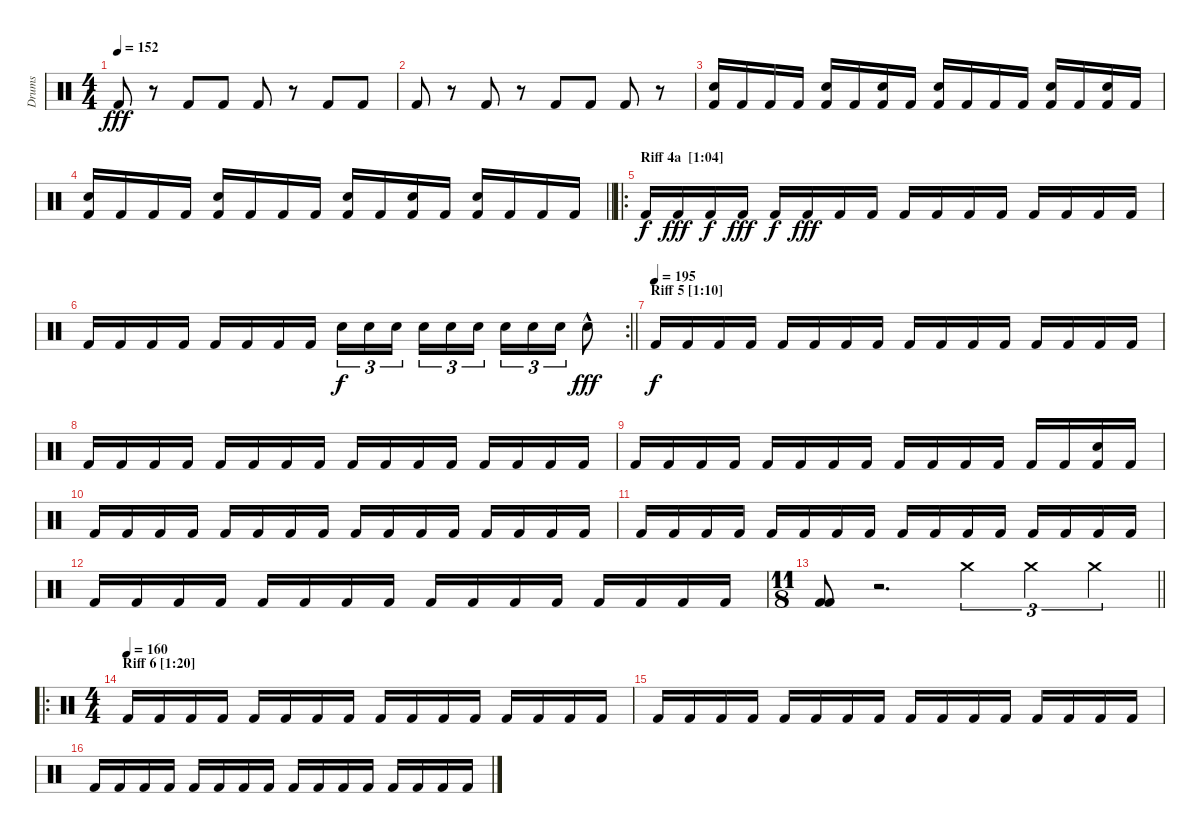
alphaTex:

\track ("Drums" "Drums") {instrument percussion}
\staff {score}
\articulation defaults
\ts (4 4)
\tempo 152
\clef neutral
\ks c "Kick (hit) 2".8{dy fff}
r.8 "Kick (hit) 2".8 "Kick (hit) 2".8 "Kick (hit) 2".8 r.8 "Kick (hit) 2".8 "Kick (hit) 2".8 |
"Kick (hit) 2".8 r.8 "Kick (hit) 2".8 r.8 "Kick (hit) 2".8 "Kick (hit) 2".8 "Kick (hit) 2".8 r.8 |
("Electric Snare (hit)" "Kick (hit) 2").16 "Kick (hit) 2".16 "Kick (hit) 2".16 "Kick (hit) 2".16 ("Electric Snare (hit)" "Kick (hit) 2").16 "Kick (hit) 2".16 ("Electric Snare (hit)" "Kick (hit) 2").16 "Kick (hit) 2".16 ("Electric Snare (hit)" "Kick (hit) 2").16 "Kick (hit) 2".16 "Kick (hit) 2".16 "Kick (hit) 2".16 ("Electric Snare (hit)" "Kick (hit) 2").16 "Kick (hit) 2".16 ("Electric Snare (hit)" "Kick (hit) 2").16 "Kick (hit) 2".16 |
\barLineRight lightlight
("Electric Snare (hit)" "Kick (hit) 2").16 "Kick (hit) 2".16 "Kick (hit) 2".16 "Kick (hit) 2".16 ("Electric Snare (hit)" "Kick (hit) 2").16 "Kick (hit) 2".16 "Kick (hit) 2".16 "Kick (hit) 2".16 ("Electric Snare (hit)" "Kick (hit) 2").16 "Kick (hit) 2".16 ("Electric Snare (hit)" "Kick (hit) 2").16 "Kick (hit) 2".16 ("Electric Snare (hit)" "Kick (hit) 2").16 "Kick (hit) 2".16 "Kick (hit) 2".16 "Kick (hit) 2".16 |
\ro
\section ("" "Riff 4a  [1:04]")
"Kick (hit) 2".16{dy f} "Kick (hit) 2".16{dy fff} "Kick (hit) 2".16{dy f} "Kick (hit) 2".16{dy fff} "Kick (hit) 2".16{dy f} "Kick (hit) 2".16{dy fff} "Kick (hit) 2".16 "Kick (hit) 2".16 "Kick (hit) 2".16 "Kick (hit) 2".16 "Kick (hit) 2".16 "Kick (hit) 2".16 "Kick (hit) 2".16 "Kick (hit) 2".16 "Kick (hit) 2".16 "Kick (hit) 2".16 |
\rc 2
\barLineRight lightlight "Kick (hit) 2".16 "Kick (hit) 2".16 "Kick (hit) 2".16 "Kick (hit) 2".16 "Kick (hit) 2".16 "Kick (hit) 2".16 "Kick (hit) 2".16 "Kick (hit) 2".16 "Electric Snare (hit)".16{tu (3 2) dy f} "Electric Snare (hit)".16{tu (3 2)} "Electric Snare (hit)".16{tu (3 2) beam splitsecondary} "Electric Snare (hit)".16{tu (3 2)} "Electric Snare (hit)".16{tu (3 2)} "Electric Snare (hit)".16{tu (3 2)} "Electric Snare (hit)".16{tu (3 2)} "Electric Snare (hit)".16{tu (3 2)} "Electric Snare (hit)".16{tu (3 2)} "Electric Snare (hit)"{hac}.8{dy fff}
|
\section ("" "Riff 5 [1:10]")
\tempo (195)
"Kick (hit) 2".16{dy f} "Kick (hit) 2".16 "Kick (hit) 2".16 "Kick (hit) 2".16 "Kick (hit) 2".16 "Kick (hit) 2".16 "Kick (hit) 2".16 "Kick (hit) 2".16 "Kick (hit) 2".16 "Kick (hit) 2".16 "Kick (hit) 2".16 "Kick (hit) 2".16 "Kick (hit) 2".16 "Kick (hit) 2".16 "Kick (hit) 2".16 "Kick (hit) 2".16 |
"Kick (hit) 2".16 "Kick (hit) 2".16 "Kick (hit) 2".16 "Kick (hit) 2".16 "Kick (hit) 2".16 "Kick (hit) 2".16 "Kick (hit) 2".16 "Kick (hit) 2".16 "Kick (hit) 2".16 "Kick (hit) 2".16 "Kick (hit) 2".16 "Kick (hit) 2".16 "Kick (hit) 2".16 "Kick (hit) 2".16 "Kick (hit) 2".16 "Kick (hit) 2".16 |
"Kick (hit) 2".16 "Kick (hit) 2".16 "Kick (hit) 2".16 "Kick (hit) 2".16 "Kick (hit) 2".16 "Kick (hit) 2".16 "Kick (hit) 2".16 "Kick (hit) 2".16 "Kick (hit) 2".16 "Kick (hit) 2".16 "Kick (hit) 2".16 "Kick (hit) 2".16 "Kick (hit) 2".16 "Kick (hit) 2".16 ("Electric Snare (hit)" "Kick (hit) 2").16 "Kick (hit) 2".16 |
"Kick (hit) 2".16 "Kick (hit) 2".16 "Kick (hit) 2".16 "Kick (hit) 2".16 "Kick (hit) 2".16 "Kick (hit) 2".16 "Kick (hit) 2".16 "Kick (hit) 2".16 "Kick (hit) 2".16 "Kick (hit) 2".16 "Kick (hit) 2".16 "Kick (hit) 2".16 "Kick (hit) 2".16 "Kick (hit) 2".16 "Kick (hit) 2".16 "Kick (hit) 2".16 |
"Kick (hit) 2".16 "Kick (hit) 2".16 "Kick (hit) 2".16 "Kick (hit) 2".16 "Kick (hit) 2".16 "Kick (hit) 2".16 "Kick (hit) 2".16 "Kick (hit) 2".16 "Kick (hit) 2".16 "Kick (hit) 2".16 "Kick (hit) 2".16 "Kick (hit) 2".16 "Kick (hit) 2".16 "Kick (hit) 2".16 "Kick (hit) 2".16 "Kick (hit) 2".16 |
"Kick (hit) 2".16 "Kick (hit) 2".16 "Kick (hit) 2".16 "Kick (hit) 2".16 "Kick (hit) 2".16 "Kick (hit) 2".16 "Kick (hit) 2".16 "Kick (hit) 2".16 "Kick (hit) 2".16 "Kick (hit) 2".16 "Kick (hit) 2".16 "Kick (hit) 2".16 "Kick (hit) 2".16 "Kick (hit) 2".16 "Kick (hit) 2".16 "Kick (hit) 2".16 |
\ts (11 8)
\barLineRight lightlight
("Kick (hit) 2" "Kick (hit) 2").8 r.2{d} "Crash medium (hit)".4{tu (3 2)} "Crash medium (hit)".4{tu (3 2)} "Crash medium (hit)".4{tu (3 2)} |
\ro
\ts (4 4)
\section ("" "Riff 6 [1:20]")
\tempo (160)
"Kick (hit) 2".16 "Kick (hit) 2".16 "Kick (hit) 2".16 "Kick (hit) 2".16 "Kick (hit) 2".16 "Kick (hit) 2".16 "Kick (hit) 2".16 "Kick (hit) 2".16 "Kick (hit) 2".16 "Kick (hit) 2".16 "Kick (hit) 2".16 "Kick (hit) 2".16 "Kick (hit) 2".16 "Kick (hit) 2".16 "Kick (hit) 2".16 "Kick (hit) 2".16 |
"Kick (hit) 2".16 "Kick (hit) 2".16 "Kick (hit) 2".16 "Kick (hit) 2".16 "Kick (hit) 2".16 "Kick (hit) 2".16 "Kick (hit) 2".16 "Kick (hit) 2".16 "Kick (hit) 2".16 "Kick (hit) 2".16 "Kick (hit) 2".16 "Kick (hit) 2".16 "Kick (hit) 2".16 "Kick (hit) 2".16 "Kick (hit) 2".16 "Kick (hit) 2".16 |
"Kick (hit) 2".16 "Kick (hit) 2".16 "Kick (hit) 2".16 "Kick (hit) 2".16 "Kick (hit) 2".16 "Kick (hit) 2".16 "Kick (hit) 2".16 "Kick (hit) 2".16 "Kick (hit) 2".16 "Kick (hit) 2".16 "Kick (hit) 2".16 "Kick (hit) 2".16 "Kick (hit) 2".16 "Kick (hit) 2".16 "Kick (hit) 2".16 "Kick (hit) 2".16
